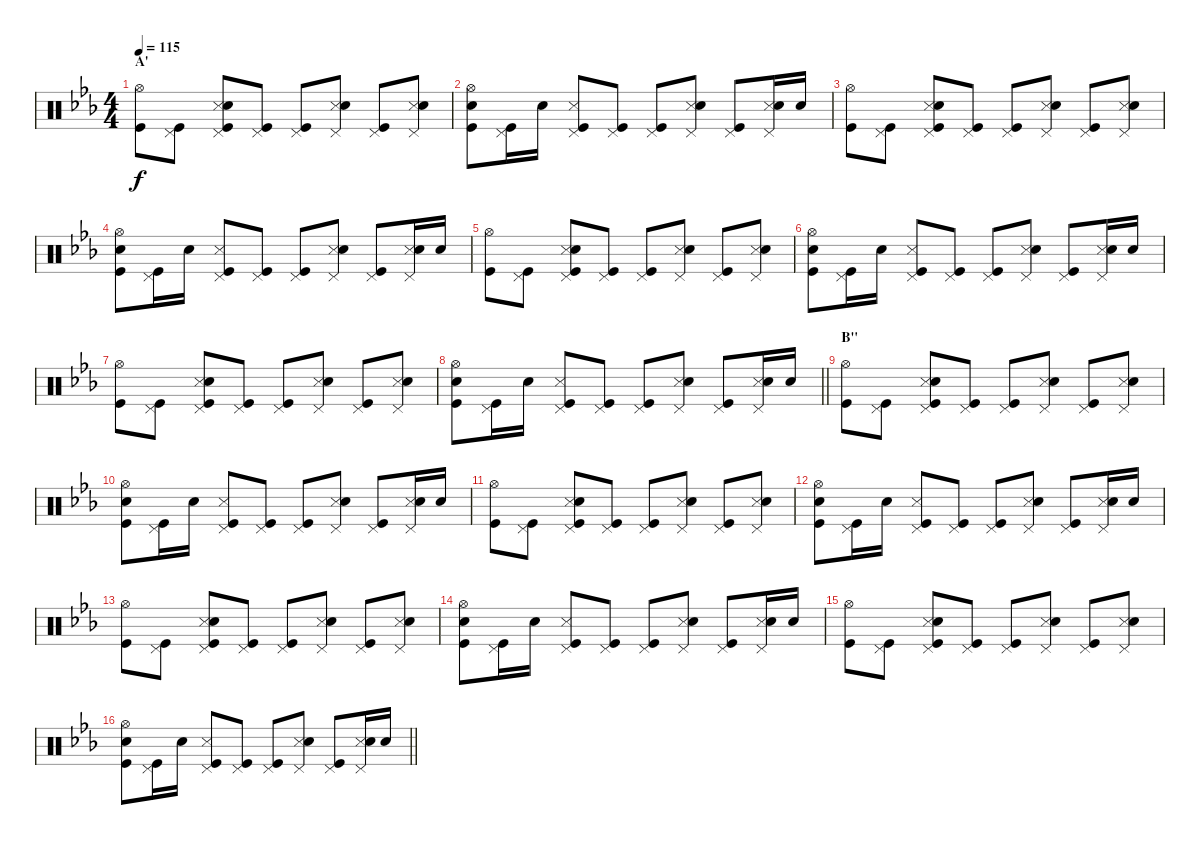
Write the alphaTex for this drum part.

\track "" {instrument percussion}
\staff {score}
\articulation defaults
\ts (4 4)
\section ("" "A'")
\tempo 115
\clef neutral
\ks cminor
("Hi-Hat (open)" "Kick (hit)").8{dy f} ("Pedal Hi-Hat (hit)" "Kick (hit)").8 ("Pedal Hi-Hat (hit)" "Snare (side stick) 3" "Electric Snare (hit)" "Kick (hit)").8 ("Pedal Hi-Hat (hit)" "Kick (hit)").8 ("Pedal Hi-Hat (hit)" "Kick (hit)").8 ("Pedal Hi-Hat (hit)" "Snare (side stick) 3" "Electric Snare (hit)").8 ("Pedal Hi-Hat (hit)" "Kick (hit)").8 ("Pedal Hi-Hat (hit)" "Snare (side stick) 3" "Electric Snare (hit)").8 |
("Hi-Hat (open)" "Electric Snare (hit)" "Kick (hit)").8 ("Pedal Hi-Hat (hit)" "Kick (hit)").16 "Electric Snare (hit)".16 ("Pedal Hi-Hat (hit)" "Snare (side stick) 3" "Kick (hit)").8 ("Pedal Hi-Hat (hit)" "Kick (hit)").8 ("Pedal Hi-Hat (hit)" "Kick (hit)").8 ("Pedal Hi-Hat (hit)" "Snare (side stick) 3" "Electric Snare (hit)").8 ("Pedal Hi-Hat (hit)" "Kick (hit)").8 ("Pedal Hi-Hat (hit)" "Snare (side stick) 3" "Electric Snare (hit)").16 "Electric Snare (hit)".16 |
("Hi-Hat (open)" "Kick (hit)").8 ("Pedal Hi-Hat (hit)" "Kick (hit)").8 ("Pedal Hi-Hat (hit)" "Snare (side stick) 3" "Electric Snare (hit)" "Kick (hit)").8 ("Pedal Hi-Hat (hit)" "Kick (hit)").8 ("Pedal Hi-Hat (hit)" "Kick (hit)").8 ("Pedal Hi-Hat (hit)" "Snare (side stick) 3" "Electric Snare (hit)").8 ("Pedal Hi-Hat (hit)" "Kick (hit)").8 ("Pedal Hi-Hat (hit)" "Snare (side stick) 3" "Electric Snare (hit)").8 |
("Hi-Hat (open)" "Electric Snare (hit)" "Kick (hit)").8 ("Pedal Hi-Hat (hit)" "Kick (hit)").16 "Electric Snare (hit)".16 ("Pedal Hi-Hat (hit)" "Snare (side stick) 3" "Kick (hit)").8 ("Pedal Hi-Hat (hit)" "Kick (hit)").8 ("Pedal Hi-Hat (hit)" "Kick (hit)").8 ("Pedal Hi-Hat (hit)" "Snare (side stick) 3" "Electric Snare (hit)").8 ("Pedal Hi-Hat (hit)" "Kick (hit)").8 ("Pedal Hi-Hat (hit)" "Snare (side stick) 3" "Electric Snare (hit)").16 "Electric Snare (hit)".16 |
("Hi-Hat (open)" "Kick (hit)").8 ("Pedal Hi-Hat (hit)" "Kick (hit)").8 ("Pedal Hi-Hat (hit)" "Snare (side stick) 3" "Electric Snare (hit)" "Kick (hit)").8 ("Pedal Hi-Hat (hit)" "Kick (hit)").8 ("Pedal Hi-Hat (hit)" "Kick (hit)").8 ("Pedal Hi-Hat (hit)" "Snare (side stick) 3" "Electric Snare (hit)").8 ("Pedal Hi-Hat (hit)" "Kick (hit)").8 ("Pedal Hi-Hat (hit)" "Snare (side stick) 3" "Electric Snare (hit)").8 |
("Hi-Hat (open)" "Electric Snare (hit)" "Kick (hit)").8 ("Pedal Hi-Hat (hit)" "Kick (hit)").16 "Electric Snare (hit)".16 ("Pedal Hi-Hat (hit)" "Snare (side stick) 3" "Kick (hit)").8 ("Pedal Hi-Hat (hit)" "Kick (hit)").8 ("Pedal Hi-Hat (hit)" "Kick (hit)").8 ("Pedal Hi-Hat (hit)" "Snare (side stick) 3" "Electric Snare (hit)").8 ("Pedal Hi-Hat (hit)" "Kick (hit)").8 ("Pedal Hi-Hat (hit)" "Snare (side stick) 3" "Electric Snare (hit)").16 "Electric Snare (hit)".16 |
("Hi-Hat (open)" "Kick (hit)").8 ("Pedal Hi-Hat (hit)" "Kick (hit)").8 ("Pedal Hi-Hat (hit)" "Snare (side stick) 3" "Electric Snare (hit)" "Kick (hit)").8 ("Pedal Hi-Hat (hit)" "Kick (hit)").8 ("Pedal Hi-Hat (hit)" "Kick (hit)").8 ("Pedal Hi-Hat (hit)" "Snare (side stick) 3" "Electric Snare (hit)").8 ("Pedal Hi-Hat (hit)" "Kick (hit)").8 ("Pedal Hi-Hat (hit)" "Snare (side stick) 3" "Electric Snare (hit)").8 |
\barLineRight lightlight
("Hi-Hat (open)" "Electric Snare (hit)" "Kick (hit)").8 ("Pedal Hi-Hat (hit)" "Kick (hit)").16 "Electric Snare (hit)".16 ("Pedal Hi-Hat (hit)" "Snare (side stick) 3" "Kick (hit)").8 ("Pedal Hi-Hat (hit)" "Kick (hit)").8 ("Pedal Hi-Hat (hit)" "Kick (hit)").8 ("Pedal Hi-Hat (hit)" "Snare (side stick) 3" "Electric Snare (hit)").8 ("Pedal Hi-Hat (hit)" "Kick (hit)").8 ("Pedal Hi-Hat (hit)" "Snare (side stick) 3" "Electric Snare (hit)").16 "Electric Snare (hit)".16 |
\section ("" "B''")
("Hi-Hat (open)" "Kick (hit)").8 ("Pedal Hi-Hat (hit)" "Kick (hit)").8 ("Pedal Hi-Hat (hit)" "Snare (side stick) 3" "Electric Snare (hit)" "Kick (hit)").8 ("Pedal Hi-Hat (hit)" "Kick (hit)").8 ("Pedal Hi-Hat (hit)" "Kick (hit)").8 ("Pedal Hi-Hat (hit)" "Snare (side stick) 3" "Electric Snare (hit)").8 ("Pedal Hi-Hat (hit)" "Kick (hit)").8 ("Pedal Hi-Hat (hit)" "Snare (side stick) 3" "Electric Snare (hit)").8 |
("Hi-Hat (open)" "Electric Snare (hit)" "Kick (hit)").8 ("Pedal Hi-Hat (hit)" "Kick (hit)").16 "Electric Snare (hit)".16 ("Pedal Hi-Hat (hit)" "Snare (side stick) 3" "Kick (hit)").8 ("Pedal Hi-Hat (hit)" "Kick (hit)").8 ("Pedal Hi-Hat (hit)" "Kick (hit)").8 ("Pedal Hi-Hat (hit)" "Snare (side stick) 3" "Electric Snare (hit)").8 ("Pedal Hi-Hat (hit)" "Kick (hit)").8 ("Pedal Hi-Hat (hit)" "Snare (side stick) 3" "Electric Snare (hit)").16 "Electric Snare (hit)".16 |
("Hi-Hat (open)" "Kick (hit)").8 ("Pedal Hi-Hat (hit)" "Kick (hit)").8 ("Pedal Hi-Hat (hit)" "Snare (side stick) 3" "Electric Snare (hit)" "Kick (hit)").8 ("Pedal Hi-Hat (hit)" "Kick (hit)").8 ("Pedal Hi-Hat (hit)" "Kick (hit)").8 ("Pedal Hi-Hat (hit)" "Snare (side stick) 3" "Electric Snare (hit)").8 ("Pedal Hi-Hat (hit)" "Kick (hit)").8 ("Pedal Hi-Hat (hit)" "Snare (side stick) 3" "Electric Snare (hit)").8 |
("Hi-Hat (open)" "Electric Snare (hit)" "Kick (hit)").8 ("Pedal Hi-Hat (hit)" "Kick (hit)").16 "Electric Snare (hit)".16 ("Pedal Hi-Hat (hit)" "Snare (side stick) 3" "Kick (hit)").8 ("Pedal Hi-Hat (hit)" "Kick (hit)").8 ("Pedal Hi-Hat (hit)" "Kick (hit)").8 ("Pedal Hi-Hat (hit)" "Snare (side stick) 3" "Electric Snare (hit)").8 ("Pedal Hi-Hat (hit)" "Kick (hit)").8 ("Pedal Hi-Hat (hit)" "Snare (side stick) 3" "Electric Snare (hit)").16 "Electric Snare (hit)".16 |
("Hi-Hat (open)" "Kick (hit)").8 ("Pedal Hi-Hat (hit)" "Kick (hit)").8 ("Pedal Hi-Hat (hit)" "Snare (side stick) 3" "Electric Snare (hit)" "Kick (hit)").8 ("Pedal Hi-Hat (hit)" "Kick (hit)").8 ("Pedal Hi-Hat (hit)" "Kick (hit)").8 ("Pedal Hi-Hat (hit)" "Snare (side stick) 3" "Electric Snare (hit)").8 ("Pedal Hi-Hat (hit)" "Kick (hit)").8 ("Pedal Hi-Hat (hit)" "Snare (side stick) 3" "Electric Snare (hit)").8 |
("Hi-Hat (open)" "Electric Snare (hit)" "Kick (hit)").8 ("Pedal Hi-Hat (hit)" "Kick (hit)").16 "Electric Snare (hit)".16 ("Pedal Hi-Hat (hit)" "Snare (side stick) 3" "Kick (hit)").8 ("Pedal Hi-Hat (hit)" "Kick (hit)").8 ("Pedal Hi-Hat (hit)" "Kick (hit)").8 ("Pedal Hi-Hat (hit)" "Snare (side stick) 3" "Electric Snare (hit)").8 ("Pedal Hi-Hat (hit)" "Kick (hit)").8 ("Pedal Hi-Hat (hit)" "Snare (side stick) 3" "Electric Snare (hit)").16 "Electric Snare (hit)".16 |
("Hi-Hat (open)" "Kick (hit)").8 ("Pedal Hi-Hat (hit)" "Kick (hit)").8 ("Pedal Hi-Hat (hit)" "Snare (side stick) 3" "Electric Snare (hit)" "Kick (hit)").8 ("Pedal Hi-Hat (hit)" "Kick (hit)").8 ("Pedal Hi-Hat (hit)" "Kick (hit)").8 ("Pedal Hi-Hat (hit)" "Snare (side stick) 3" "Electric Snare (hit)").8 ("Pedal Hi-Hat (hit)" "Kick (hit)").8 ("Pedal Hi-Hat (hit)" "Snare (side stick) 3" "Electric Snare (hit)").8 |
\barLineRight lightlight
("Hi-Hat (open)" "Electric Snare (hit)" "Kick (hit)").8 ("Pedal Hi-Hat (hit)" "Kick (hit)").16 "Electric Snare (hit)".16 ("Pedal Hi-Hat (hit)" "Snare (side stick) 3" "Kick (hit)").8 ("Pedal Hi-Hat (hit)" "Kick (hit)").8 ("Pedal Hi-Hat (hit)" "Kick (hit)").8 ("Pedal Hi-Hat (hit)" "Snare (side stick) 3" "Electric Snare (hit)").8 ("Pedal Hi-Hat (hit)" "Kick (hit)").8 ("Pedal Hi-Hat (hit)" "Snare (side stick) 3" "Electric Snare (hit)").16 "Electric Snare (hit)".16
